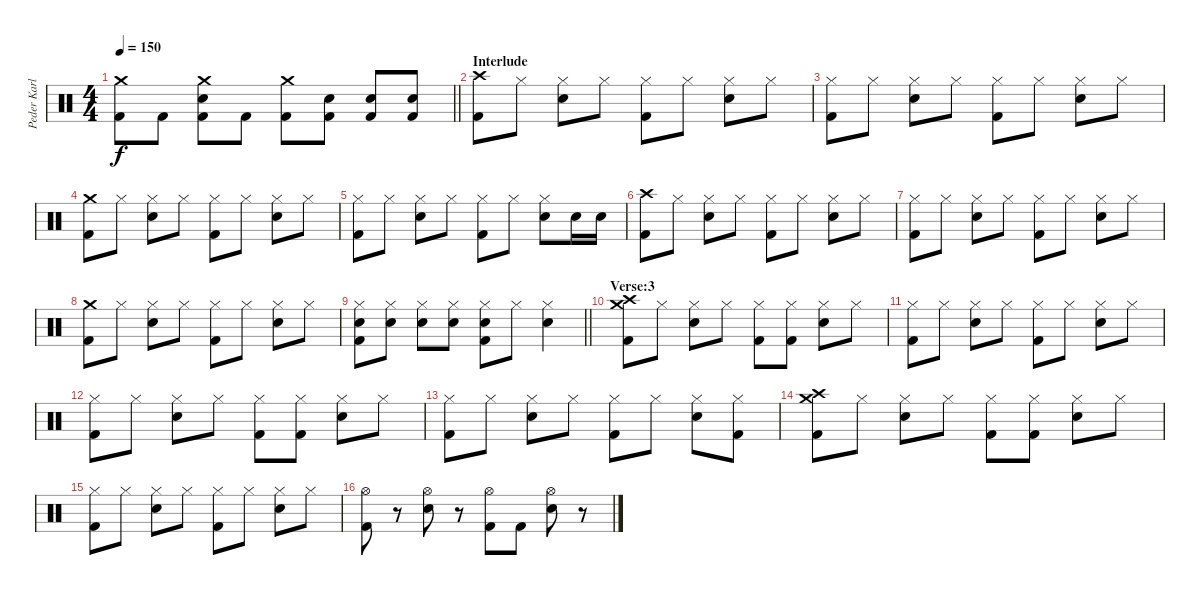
\track ("Peder Karlsson" "Peder Karl") {instrument percussion}
\staff {score}
\articulation defaults
\ts (4 4)
\tempo 150
\clef neutral
\barLineRight lightlight
\ks c
("Crash medium (hit)" "Kick (hit) 2").8{dy f} "Kick (hit) 2".8 ("Crash medium (hit)" "Snare (hit) 2" "Kick (hit) 2").8 "Kick (hit) 2".8 ("Crash medium (hit)" "Kick (hit) 2").8 ("Snare (hit) 2" "Kick (hit) 2").8 ("Snare (hit) 2" "Kick (hit) 2").8 ("Snare (hit) 2" "Kick (hit) 2").8 |
\section ("" "Interlude")
("Crash high (hit)" "Kick (hit) 2").8 "Hi-Hat (closed)".8 ("Hi-Hat (closed)" "Snare (hit) 2").8 "Hi-Hat (closed)".8 ("Hi-Hat (closed)" "Kick (hit) 2").8 "Hi-Hat (closed)".8 ("Hi-Hat (closed)" "Snare (hit) 2").8 "Hi-Hat (closed)".8 |
("Hi-Hat (closed)" "Kick (hit) 2").8 "Hi-Hat (closed)".8 ("Hi-Hat (closed)" "Snare (hit) 2").8 "Hi-Hat (closed)".8 ("Hi-Hat (closed)" "Kick (hit) 2").8 "Hi-Hat (closed)".8 ("Hi-Hat (closed)" "Snare (hit) 2").8 "Hi-Hat (closed)".8 |
("Crash medium (hit)" "Kick (hit) 2").8 "Hi-Hat (closed)".8 ("Hi-Hat (closed)" "Snare (hit) 2").8 "Hi-Hat (closed)".8 ("Hi-Hat (closed)" "Kick (hit) 2").8 "Hi-Hat (closed)".8 ("Hi-Hat (closed)" "Snare (hit) 2").8 "Hi-Hat (closed)".8 |
("Hi-Hat (closed)" "Kick (hit) 2").8 "Hi-Hat (closed)".8 ("Hi-Hat (closed)" "Snare (hit) 2").8 "Hi-Hat (closed)".8 ("Hi-Hat (closed)" "Kick (hit) 2").8 "Hi-Hat (closed)".8 ("Hi-Hat (closed)" "Snare (hit) 2").8 "Snare (hit) 2".16 "Snare (hit) 2".16 |
("Crash high (hit)" "Kick (hit) 2").8 "Hi-Hat (closed)".8 ("Hi-Hat (closed)" "Snare (hit) 2").8 "Hi-Hat (closed)".8 ("Hi-Hat (closed)" "Kick (hit) 2").8 "Hi-Hat (closed)".8 ("Hi-Hat (closed)" "Snare (hit) 2").8 "Hi-Hat (closed)".8 |
("Hi-Hat (closed)" "Kick (hit) 2").8 "Hi-Hat (closed)".8 ("Hi-Hat (closed)" "Snare (hit) 2").8 "Hi-Hat (closed)".8 ("Hi-Hat (closed)" "Kick (hit) 2").8 "Hi-Hat (closed)".8 ("Hi-Hat (closed)" "Snare (hit) 2").8 "Hi-Hat (closed)".8 |
("Crash medium (hit)" "Kick (hit) 2").8 "Hi-Hat (closed)".8 ("Hi-Hat (closed)" "Snare (hit) 2").8 "Hi-Hat (closed)".8 ("Hi-Hat (closed)" "Kick (hit) 2").8 "Hi-Hat (closed)".8 ("Hi-Hat (closed)" "Snare (hit) 2").8 "Hi-Hat (closed)".8 |
\barLineRight lightlight
("Hi-Hat (closed)" "Snare (hit) 2" "Kick (hit) 2").8 ("Hi-Hat (closed)" "Snare (hit) 2").8 ("Hi-Hat (closed)" "Snare (hit) 2").8 ("Hi-Hat (closed)" "Snare (hit) 2").8 ("Hi-Hat (closed)" "Snare (hit) 2" "Kick (hit) 2").8 "Hi-Hat (closed)".8 ("Hi-Hat (closed)" "Snare (hit) 2").4 |
\section ("" "Verse:3")
("Crash medium (hit)" "Crash high (hit)" "Kick (hit) 2").8 "Hi-Hat (closed)".8 ("Hi-Hat (closed)" "Snare (hit) 2").8 "Hi-Hat (closed)".8 ("Hi-Hat (closed)" "Kick (hit) 2").8 ("Hi-Hat (closed)" "Kick (hit) 2").8 ("Hi-Hat (closed)" "Snare (hit) 2").8 "Hi-Hat (closed)".8 |
("Hi-Hat (closed)" "Kick (hit) 2").8 "Hi-Hat (closed)".8 ("Hi-Hat (closed)" "Snare (hit) 2").8 "Hi-Hat (closed)".8 ("Hi-Hat (closed)" "Kick (hit) 2").8 "Hi-Hat (closed)".8 ("Hi-Hat (closed)" "Snare (hit) 2").8 "Hi-Hat (closed)".8 |
("Hi-Hat (closed)" "Kick (hit) 2").8 "Hi-Hat (closed)".8 ("Hi-Hat (closed)" "Snare (hit) 2").8 "Hi-Hat (closed)".8 ("Hi-Hat (closed)" "Kick (hit) 2").8 ("Hi-Hat (closed)" "Kick (hit) 2").8 ("Hi-Hat (closed)" "Snare (hit) 2").8 "Hi-Hat (closed)".8 |
("Hi-Hat (closed)" "Kick (hit) 2").8 "Hi-Hat (closed)".8 ("Hi-Hat (closed)" "Snare (hit) 2").8 "Hi-Hat (closed)".8 ("Hi-Hat (closed)" "Kick (hit) 2").8 "Hi-Hat (closed)".8 ("Hi-Hat (closed)" "Snare (hit) 2").8 ("Hi-Hat (closed)" "Kick (hit) 2").8 |
("Crash medium (hit)" "Crash high (hit)" "Kick (hit) 2").8 "Hi-Hat (closed)".8 ("Hi-Hat (closed)" "Snare (hit) 2").8 "Hi-Hat (closed)".8 ("Hi-Hat (closed)" "Kick (hit) 2").8 ("Hi-Hat (closed)" "Kick (hit) 2").8 ("Hi-Hat (closed)" "Snare (hit) 2").8 "Hi-Hat (closed)".8 |
("Hi-Hat (closed)" "Kick (hit) 2").8 "Hi-Hat (closed)".8 ("Hi-Hat (closed)" "Snare (hit) 2").8 "Hi-Hat (closed)".8 ("Hi-Hat (closed)" "Kick (hit) 2").8 "Hi-Hat (closed)".8 ("Hi-Hat (closed)" "Snare (hit) 2").8 "Hi-Hat (closed)".8 |
("Hi-Hat (open)" "Kick (hit) 2").8 r.8 ("Hi-Hat (open)" "Snare (hit) 2").8 r.8 ("Hi-Hat (open)" "Kick (hit) 2").8 "Kick (hit) 2".8 ("Hi-Hat (open)" "Snare (hit) 2").8 r.8
